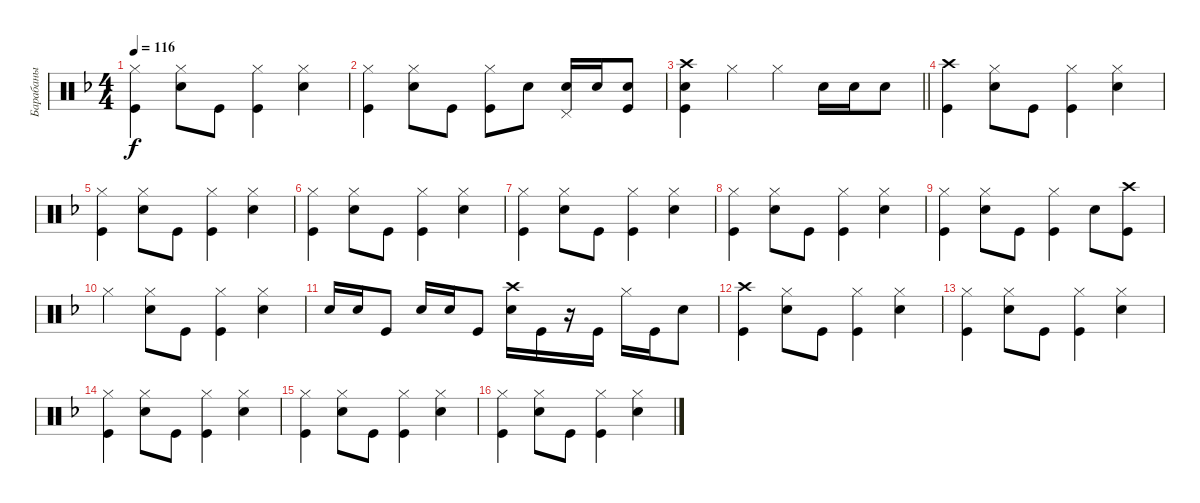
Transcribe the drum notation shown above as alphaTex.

\track ("Барабаны" "Барабаны") {instrument percussion}
\staff {score}
\articulation defaults
\ts (4 4)
\tempo 116
\clef neutral
\ks dminor
("Hi-Hat (closed)" "Kick (hit)").4{dy f} ("Hi-Hat (closed)" "Snare (hit) 2").8 "Kick (hit)".8 ("Hi-Hat (closed)" "Kick (hit)").4 ("Hi-Hat (closed)" "Snare (hit) 2").4 |
("Hi-Hat (closed)" "Kick (hit)").4 ("Hi-Hat (closed)" "Snare (hit) 2").8 "Kick (hit)".8 ("Hi-Hat (closed)" "Kick (hit)").8 "Snare (hit) 2".8 ("Snare (hit) 2" "Pedal Hi-Hat (hit)").16 "Snare (hit) 2".16 ("Snare (hit) 2" "Kick (hit)").8 |
\barLineRight lightlight
("Kick (hit)" "Crash high (hit)" "Snare (hit) 2").4 "Hi-Hat (closed)".4 "Hi-Hat (closed)".4 "Snare (hit) 2".16 "Snare (hit) 2".16 "Snare (hit) 2".8 |
("Crash high (hit)" "Kick (hit)").4 ("Hi-Hat (closed)" "Snare (hit) 2").8 "Kick (hit)".8 ("Hi-Hat (closed)" "Kick (hit)").4 ("Hi-Hat (closed)" "Snare (hit) 2").4 |
("Hi-Hat (closed)" "Kick (hit)").4 ("Hi-Hat (closed)" "Snare (hit) 2").8 "Kick (hit)".8 ("Hi-Hat (closed)" "Kick (hit)").4 ("Hi-Hat (closed)" "Snare (hit) 2").4 |
("Hi-Hat (closed)" "Kick (hit)").4 ("Hi-Hat (closed)" "Snare (hit) 2").8 "Kick (hit)".8 ("Hi-Hat (closed)" "Kick (hit)").4 ("Hi-Hat (closed)" "Snare (hit) 2").4 |
("Hi-Hat (closed)" "Kick (hit)").4 ("Hi-Hat (closed)" "Snare (hit) 2").8 "Kick (hit)".8 ("Hi-Hat (closed)" "Kick (hit)").4 ("Hi-Hat (closed)" "Snare (hit) 2").4 |
("Hi-Hat (closed)" "Kick (hit)").4 ("Hi-Hat (closed)" "Snare (hit) 2").8 "Kick (hit)".8 ("Hi-Hat (closed)" "Kick (hit)").4 ("Hi-Hat (closed)" "Snare (hit) 2").4 |
("Hi-Hat (closed)" "Kick (hit)").4 ("Hi-Hat (closed)" "Snare (hit) 2").8 "Kick (hit)".8 ("Hi-Hat (closed)" "Kick (hit)").4 "Snare (hit) 2".8 ("Kick (hit)" "Crash high (hit)").8 |
"Hi-Hat (closed)".4 ("Hi-Hat (closed)" "Snare (hit) 2").8 "Kick (hit)".8 ("Hi-Hat (closed)" "Kick (hit)").4 ("Hi-Hat (closed)" "Snare (hit) 2").4 |
"Snare (hit) 2".16 "Snare (hit) 2".16 "Kick (hit)".8 "Snare (hit) 2".16 "Snare (hit) 2".16 "Kick (hit)".8 ("Snare (hit) 2" "Crash high (hit)").16 "Kick (hit)".16 r.16 "Kick (hit)".16 "Hi-Hat (closed)".16 "Kick (hit)".16 "Snare (hit) 2".8 |
("Crash high (hit)" "Kick (hit)").4 ("Hi-Hat (closed)" "Snare (hit) 2").8 "Kick (hit)".8 ("Hi-Hat (closed)" "Kick (hit)").4 ("Hi-Hat (closed)" "Snare (hit) 2").4 |
("Hi-Hat (closed)" "Kick (hit)").4 ("Hi-Hat (closed)" "Snare (hit) 2").8 "Kick (hit)".8 ("Hi-Hat (closed)" "Kick (hit)").4 ("Hi-Hat (closed)" "Snare (hit) 2").4 |
("Hi-Hat (closed)" "Kick (hit)").4 ("Hi-Hat (closed)" "Snare (hit) 2").8 "Kick (hit)".8 ("Hi-Hat (closed)" "Kick (hit)").4 ("Hi-Hat (closed)" "Snare (hit) 2").4 |
("Hi-Hat (closed)" "Kick (hit)").4 ("Hi-Hat (closed)" "Snare (hit) 2").8 "Kick (hit)".8 ("Hi-Hat (closed)" "Kick (hit)").4 ("Hi-Hat (closed)" "Snare (hit) 2").4 |
("Hi-Hat (closed)" "Kick (hit)").4 ("Hi-Hat (closed)" "Snare (hit) 2").8 "Kick (hit)".8 ("Hi-Hat (closed)" "Kick (hit)").4 ("Hi-Hat (closed)" "Snare (hit) 2").4
